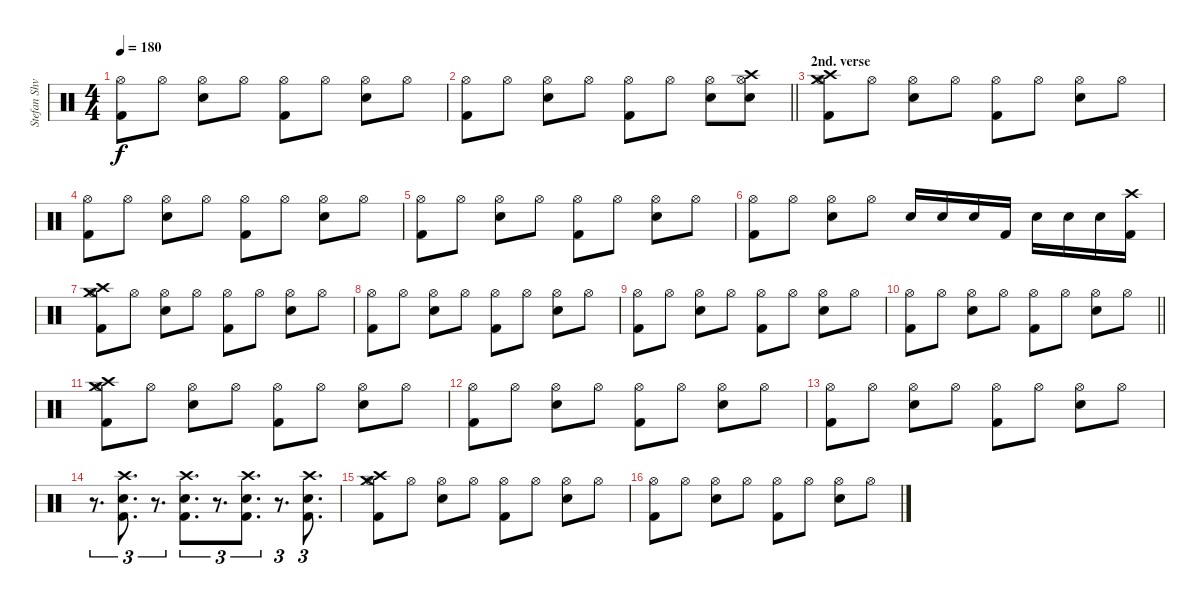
\track ("Stefan Shvartsman" "Stefan Shv") {instrument percussion}
\staff {score}
\articulation defaults
\ts (4 4)
\tempo 180
\clef neutral
\ks c
("Hi-Hat (open)" "Kick (hit) 2").8{dy f} "Hi-Hat (open)".8 ("Hi-Hat (open)" "Snare (hit) 2").8 "Hi-Hat (open)".8 ("Hi-Hat (open)" "Kick (hit) 2").8 "Hi-Hat (open)".8 ("Hi-Hat (open)" "Snare (hit) 2").8 "Hi-Hat (open)".8 |
\barLineRight lightlight
("Hi-Hat (open)" "Kick (hit) 2").8 "Hi-Hat (open)".8 ("Hi-Hat (open)" "Snare (hit) 2").8 "Hi-Hat (open)".8 ("Hi-Hat (open)" "Kick (hit) 2").8 "Hi-Hat (open)".8 ("Hi-Hat (open)" "Snare (hit) 2").8 ("Hi-Hat (open)" "Crash high (hit)" "Snare (hit) 2").8 |
\section ("" "2nd. verse")
("Crash medium (hit)" "Hi-Hat (open)" "Kick (hit) 2" "Crash high (hit)").8 "Hi-Hat (open)".8 ("Hi-Hat (open)" "Snare (hit) 2").8 "Hi-Hat (open)".8 ("Hi-Hat (open)" "Kick (hit) 2").8 "Hi-Hat (open)".8 ("Hi-Hat (open)" "Snare (hit) 2").8 "Hi-Hat (open)".8 |
("Hi-Hat (open)" "Kick (hit) 2").8 "Hi-Hat (open)".8 ("Hi-Hat (open)" "Snare (hit) 2").8 "Hi-Hat (open)".8 ("Hi-Hat (open)" "Kick (hit) 2").8 "Hi-Hat (open)".8 ("Hi-Hat (open)" "Snare (hit) 2").8 "Hi-Hat (open)".8 |
("Hi-Hat (open)" "Kick (hit) 2").8 "Hi-Hat (open)".8 ("Hi-Hat (open)" "Snare (hit) 2").8 "Hi-Hat (open)".8 ("Hi-Hat (open)" "Kick (hit) 2").8 "Hi-Hat (open)".8 ("Hi-Hat (open)" "Snare (hit) 2").8 "Hi-Hat (open)".8 |
("Hi-Hat (open)" "Kick (hit) 2").8 "Hi-Hat (open)".8 ("Hi-Hat (open)" "Snare (hit) 2").8 "Hi-Hat (open)".8 "Snare (hit) 2".16 "Snare (hit) 2".16 "Snare (hit) 2".16 "Kick (hit) 2".16 "Snare (hit) 2".16 "Snare (hit) 2".16 "Snare (hit) 2".16 ("Crash high (hit)" "Kick (hit) 2").16 |
("Crash medium (hit)" "Hi-Hat (open)" "Kick (hit) 2" "Crash high (hit)").8 "Hi-Hat (open)".8 ("Hi-Hat (open)" "Snare (hit) 2").8 "Hi-Hat (open)".8 ("Hi-Hat (open)" "Kick (hit) 2").8 "Hi-Hat (open)".8 ("Hi-Hat (open)" "Snare (hit) 2").8 "Hi-Hat (open)".8 |
("Hi-Hat (open)" "Kick (hit) 2").8 "Hi-Hat (open)".8 ("Hi-Hat (open)" "Snare (hit) 2").8 "Hi-Hat (open)".8 ("Hi-Hat (open)" "Kick (hit) 2").8 "Hi-Hat (open)".8 ("Hi-Hat (open)" "Snare (hit) 2").8 "Hi-Hat (open)".8 |
("Hi-Hat (open)" "Kick (hit) 2").8 "Hi-Hat (open)".8 ("Hi-Hat (open)" "Snare (hit) 2").8 "Hi-Hat (open)".8 ("Hi-Hat (open)" "Kick (hit) 2").8 "Hi-Hat (open)".8 ("Hi-Hat (open)" "Snare (hit) 2").8 "Hi-Hat (open)".8 |
\barLineRight lightlight
("Hi-Hat (open)" "Kick (hit) 2").8 "Hi-Hat (open)".8 ("Hi-Hat (open)" "Snare (hit) 2").8 "Hi-Hat (open)".8 ("Hi-Hat (open)" "Kick (hit) 2").8 "Hi-Hat (open)".8 ("Hi-Hat (open)" "Snare (hit) 2").8 "Hi-Hat (open)".8 |
("Crash medium (hit)" "Hi-Hat (open)" "Kick (hit) 2" "Crash high (hit)").8 "Hi-Hat (open)".8 ("Hi-Hat (open)" "Snare (hit) 2").8 "Hi-Hat (open)".8 ("Hi-Hat (open)" "Kick (hit) 2").8 "Hi-Hat (open)".8 ("Hi-Hat (open)" "Snare (hit) 2").8 "Hi-Hat (open)".8 |
("Hi-Hat (open)" "Kick (hit) 2").8 "Hi-Hat (open)".8 ("Hi-Hat (open)" "Snare (hit) 2").8 "Hi-Hat (open)".8 ("Hi-Hat (open)" "Kick (hit) 2").8 "Hi-Hat (open)".8 ("Hi-Hat (open)" "Snare (hit) 2").8 "Hi-Hat (open)".8 |
("Hi-Hat (open)" "Kick (hit) 2").8 "Hi-Hat (open)".8 ("Hi-Hat (open)" "Snare (hit) 2").8 "Hi-Hat (open)".8 ("Hi-Hat (open)" "Kick (hit) 2").8 "Hi-Hat (open)".8 ("Hi-Hat (open)" "Snare (hit) 2").8 "Hi-Hat (open)".8 |
r.8{d tu (3 2)} ("Crash high (hit)" "Snare (hit) 2" "Kick (hit) 2").8{d tu (3 2)} r.8{d tu (3 2)} ("Crash high (hit)" "Snare (hit) 2" "Kick (hit) 2").8{d tu (3 2)} r.8{d tu (3 2)} ("Crash high (hit)" "Snare (hit) 2" "Kick (hit) 2").8{d tu (3 2)} r.8{d tu (3 2)} ("Crash high (hit)" "Snare (hit) 2" "Kick (hit) 2").8{d tu (3 2)} |
("Crash medium (hit)" "Hi-Hat (open)" "Kick (hit) 2" "Crash high (hit)").8 "Hi-Hat (open)".8 ("Hi-Hat (open)" "Snare (hit) 2").8 "Hi-Hat (open)".8 ("Hi-Hat (open)" "Kick (hit) 2").8 "Hi-Hat (open)".8 ("Hi-Hat (open)" "Snare (hit) 2").8 "Hi-Hat (open)".8 |
("Hi-Hat (open)" "Kick (hit) 2").8 "Hi-Hat (open)".8 ("Hi-Hat (open)" "Snare (hit) 2").8 "Hi-Hat (open)".8 ("Hi-Hat (open)" "Kick (hit) 2").8 "Hi-Hat (open)".8 ("Hi-Hat (open)" "Snare (hit) 2").8 "Hi-Hat (open)".8
